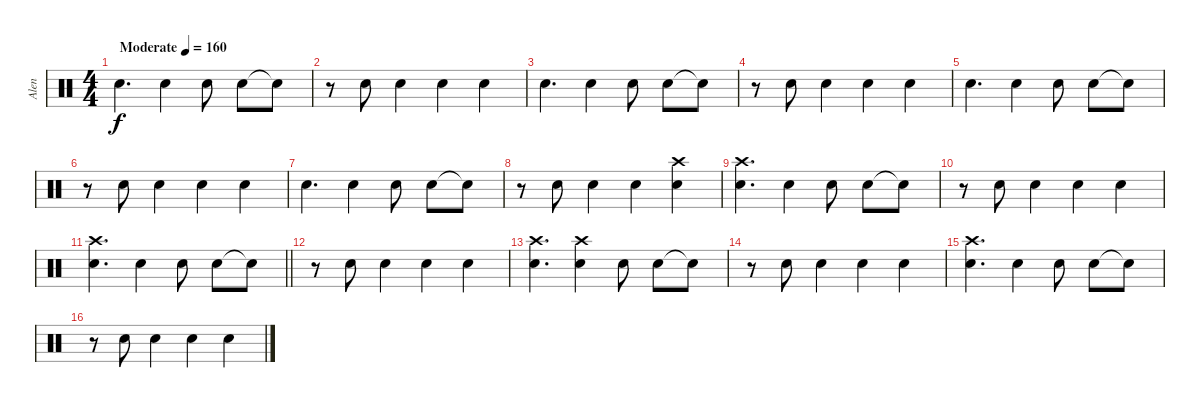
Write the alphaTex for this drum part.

\track ("Alen" "Alen") {instrument percussion}
\staff {score}
\articulation defaults
\ts (4 4)
\tempo (160 "Moderate")
\clef neutral
\ks c "Electric Snare (hit)".4{d dy f} "Electric Snare (hit)".4 "Electric Snare (hit)".8 "Electric Snare (hit)".8 "Snare (hit)"{t}.8
|
r.8 "Electric Snare (hit)".8 "Electric Snare (hit)".4 "Electric Snare (hit)".4 "Electric Snare (hit)".4 |
"Electric Snare (hit)".4{d} "Electric Snare (hit)".4 "Electric Snare (hit)".8 "Electric Snare (hit)".8 "Snare (hit)"{t}.8 |
r.8 "Electric Snare (hit)".8 "Electric Snare (hit)".4 "Electric Snare (hit)".4 "Electric Snare (hit)".4 |
"Electric Snare (hit)".4{d} "Electric Snare (hit)".4 "Electric Snare (hit)".8 "Electric Snare (hit)".8 "Snare (hit)"{t}.8 |
r.8 "Electric Snare (hit)".8 "Electric Snare (hit)".4 "Electric Snare (hit)".4 "Electric Snare (hit)".4 |
"Electric Snare (hit)".4{d} "Electric Snare (hit)".4 "Electric Snare (hit)".8 "Electric Snare (hit)".8 "Snare (hit)"{t}.8 |
r.8 "Electric Snare (hit)".8 "Electric Snare (hit)".4 "Electric Snare (hit)".4 ("Crash high (hit)" "Electric Snare (hit)").4 |
("Crash high (hit)" "Electric Snare (hit)").4{d} "Electric Snare (hit)".4 "Electric Snare (hit)".8 "Electric Snare (hit)".8 "Snare (hit)"{t}.8 |
r.8 "Electric Snare (hit)".8 "Electric Snare (hit)".4 "Electric Snare (hit)".4 "Electric Snare (hit)".4 |
\barLineRight lightlight
("Crash high (hit)" "Electric Snare (hit)").4{d} "Electric Snare (hit)".4 "Electric Snare (hit)".8 "Electric Snare (hit)".8 "Snare (hit)"{t}.8 |
\section ("" "")
r.8 "Electric Snare (hit)".8 "Electric Snare (hit)".4 "Electric Snare (hit)".4 "Electric Snare (hit)".4 |
("Crash high (hit)" "Electric Snare (hit)").4{d} ("Crash high (hit)" "Electric Snare (hit)").4 "Electric Snare (hit)".8 "Electric Snare (hit)".8 "Snare (hit)"{t}.8 |
r.8 "Electric Snare (hit)".8 "Electric Snare (hit)".4 "Electric Snare (hit)".4 "Electric Snare (hit)".4 |
("Crash high (hit)" "Electric Snare (hit)").4{d} "Electric Snare (hit)".4 "Electric Snare (hit)".8 "Electric Snare (hit)".8 "Snare (hit)"{t}.8 |
r.8 "Electric Snare (hit)".8 "Electric Snare (hit)".4 "Electric Snare (hit)".4 "Electric Snare (hit)".4
